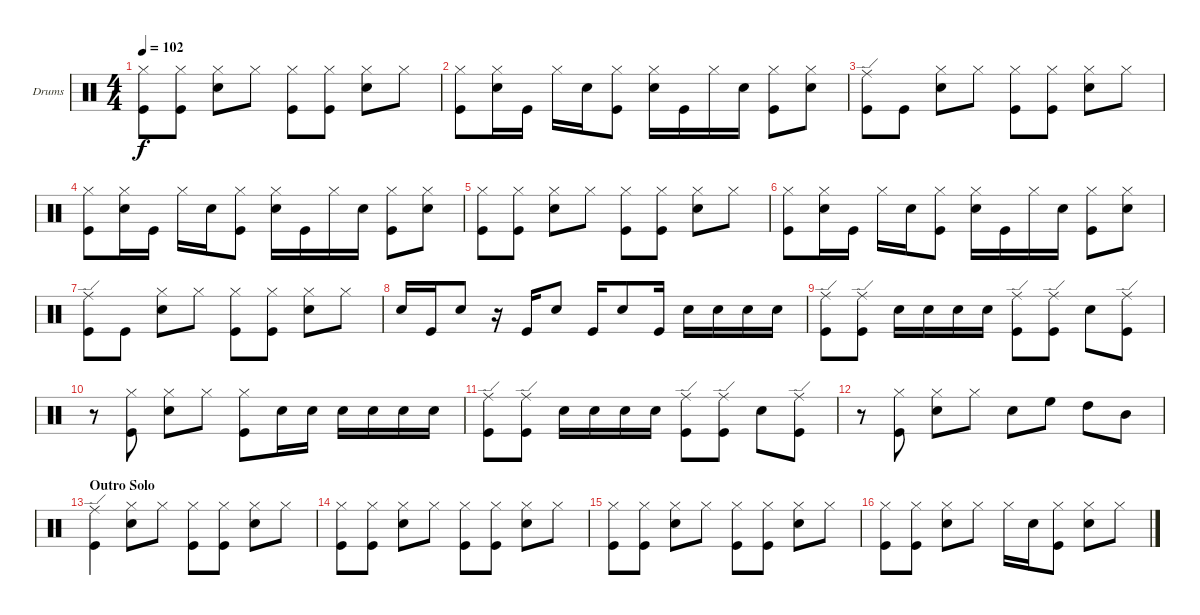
\defaultSystemsLayout 4
\bracketExtendMode groupsimilarinstruments
\firstSystemTrackNameOrientation horizontal
\otherSystemsTrackNameOrientation horizontal
\track ("Drumkit (Bonham)" "Drums") {instrument percussion}
\staff {score}
\articulation defaults
\ts (4 4)
\tempo 102
\clef neutral
\scale
0.333333
\ks c
("Hi-Hat (closed)" "Kick (hit)").8{dy f} ("Hi-Hat (closed)" "Kick (hit)").8 ("Hi-Hat (closed)" "Snare (hit) 2").8 "Hi-Hat (closed)".8 ("Hi-Hat (closed)" "Kick (hit)").8 ("Hi-Hat (closed)" "Kick (hit)").8 ("Hi-Hat (closed)" "Snare (hit) 2").8 "Hi-Hat (closed)".8 |
\scale
0.333333 ("Hi-Hat (closed)" "Kick (hit)").8 ("Hi-Hat (closed)" "Snare (hit) 2").16 "Kick (hit)".16 "Hi-Hat (closed)".16 "Snare (hit) 2".16 ("Hi-Hat (closed)" "Kick (hit)").8 ("Hi-Hat (closed)" "Snare (hit) 2").16 "Kick (hit)".16 "Hi-Hat (closed)".16 "Snare (hit) 2".16 ("Hi-Hat (closed)" "Kick (hit)").8 ("Hi-Hat (closed)" "Snare (hit) 2").8 |
\scale
0.333333 ("Ride (edge)" "Kick (hit)").8 "Kick (hit)".8 ("Hi-Hat (closed)" "Snare (hit) 2").8 "Hi-Hat (closed)".8 ("Hi-Hat (closed)" "Kick (hit)").8 ("Hi-Hat (closed)" "Kick (hit)").8 ("Hi-Hat (closed)" "Snare (hit) 2").8 "Hi-Hat (closed)".8 |
\scale
0.333333 ("Hi-Hat (closed)" "Kick (hit)").8 ("Hi-Hat (closed)" "Snare (hit) 2").16 "Kick (hit)".16 "Hi-Hat (closed)".16 "Snare (hit) 2".16 ("Hi-Hat (closed)" "Kick (hit)").8 ("Hi-Hat (closed)" "Snare (hit) 2").16 "Kick (hit)".16 "Hi-Hat (closed)".16 "Snare (hit) 2".16 ("Hi-Hat (closed)" "Kick (hit)").8 ("Hi-Hat (closed)" "Snare (hit) 2").8 |
\scale
0.333333 ("Hi-Hat (closed)" "Kick (hit)").8 ("Hi-Hat (closed)" "Kick (hit)").8 ("Hi-Hat (closed)" "Snare (hit) 2").8 "Hi-Hat (closed)".8 ("Hi-Hat (closed)" "Kick (hit)").8 ("Hi-Hat (closed)" "Kick (hit)").8 ("Hi-Hat (closed)" "Snare (hit) 2").8 "Hi-Hat (closed)".8 |
\scale
0.333333 ("Hi-Hat (closed)" "Kick (hit)").8 ("Hi-Hat (closed)" "Snare (hit) 2").16 "Kick (hit)".16 "Hi-Hat (closed)".16 "Snare (hit) 2".16 ("Hi-Hat (closed)" "Kick (hit)").8 ("Hi-Hat (closed)" "Snare (hit) 2").16 "Kick (hit)".16 "Hi-Hat (closed)".16 "Snare (hit) 2".16 ("Hi-Hat (closed)" "Kick (hit)").8 ("Hi-Hat (closed)" "Snare (hit) 2").8 |
\scale
0.333333 ("Ride (edge)" "Kick (hit)").8 "Kick (hit)".8 ("Hi-Hat (closed)" "Snare (hit) 2").8 "Hi-Hat (closed)".8 ("Hi-Hat (closed)" "Kick (hit)").8 ("Hi-Hat (closed)" "Kick (hit)").8 ("Hi-Hat (closed)" "Snare (hit) 2").8 "Hi-Hat (closed)".8 |
\scale
0.333333 "Snare (hit) 2".16 "Kick (hit)".16 "Snare (hit) 2".8 r.16 "Kick (hit)".16 "Snare (hit) 2".8 "Kick (hit)".16 "Snare (hit) 2".8 "Kick (hit)".16 "Snare (hit) 2".16 "Snare (hit) 2".16 "Snare (hit) 2".16 "Snare (hit) 2".16 |
\scale
0.333333 ("Ride (edge)" "Kick (hit)").8 ("Ride (edge)" "Kick (hit)").8 "Snare (hit) 2".16 "Snare (hit) 2".16 "Snare (hit) 2".16 "Snare (hit) 2".16 ("Ride (edge)" "Kick (hit)").8 ("Ride (edge)" "Kick (hit)").8 "Snare (hit) 2".8 ("Ride (edge)" "Kick (hit)").8 |
\scale
0.333333 r.8 ("Hi-Hat (closed)" "Kick (hit)").8 ("Hi-Hat (closed)" "Snare (hit) 2").8 "Hi-Hat (closed)".8 ("Hi-Hat (closed)" "Kick (hit)").8 "Snare (hit) 2".16 "Snare (hit) 2".16 "Snare (hit) 2".16 "Snare (hit) 2".16 "Snare (hit) 2".16 "Snare (hit) 2".16 |
\scale
0.333333 ("Ride (edge)" "Kick (hit)").8 ("Ride (edge)" "Kick (hit)").8 "Snare (hit) 2".16 "Snare (hit) 2".16 "Snare (hit) 2".16 "Snare (hit) 2".16 ("Ride (edge)" "Kick (hit)").8 ("Ride (edge)" "Kick (hit)").8 "Snare (hit) 2".8 ("Ride (edge)" "Kick (hit)").8 |
\scale
0.333333 r.8 ("Hi-Hat (closed)" "Kick (hit)").8 ("Hi-Hat (closed)" "Snare (hit) 2").8 "Hi-Hat (closed)".8 "Snare (hit) 2".8 "High Floor Tom (hit)".8 "High Tom (hit)".8 "Mid Tom (hit)".8 |
\section ("" "Outro Solo")
\scale
0.333333 ("Ride (edge)" "Kick (hit)").4 ("Hi-Hat (closed)" "Snare (hit) 2").8 "Hi-Hat (closed)".8 ("Hi-Hat (closed)" "Kick (hit)").8 ("Hi-Hat (closed)" "Kick (hit)").8 ("Hi-Hat (closed)" "Snare (hit) 2").8 "Hi-Hat (closed)".8 |
\scale
0.333333 ("Hi-Hat (closed)" "Kick (hit)").8 ("Hi-Hat (closed)" "Kick (hit)").8 ("Hi-Hat (closed)" "Snare (hit) 2").8 "Hi-Hat (closed)".8 ("Hi-Hat (closed)" "Kick (hit)").8 ("Hi-Hat (closed)" "Kick (hit)").8 ("Hi-Hat (closed)" "Snare (hit) 2").8 "Hi-Hat (closed)".8 |
\scale
0.333333 ("Hi-Hat (closed)" "Kick (hit)").8 ("Hi-Hat (closed)" "Kick (hit)").8 ("Hi-Hat (closed)" "Snare (hit) 2").8 "Hi-Hat (closed)".8 ("Hi-Hat (closed)" "Kick (hit)").8 ("Hi-Hat (closed)" "Kick (hit)").8 ("Hi-Hat (closed)" "Snare (hit) 2").8 "Hi-Hat (closed)".8 |
\scale
0.333333 ("Hi-Hat (closed)" "Kick (hit)").8 ("Hi-Hat (closed)" "Kick (hit)").8 ("Hi-Hat (closed)" "Snare (hit) 2").8 "Hi-Hat (closed)".8 "Hi-Hat (closed)".16 "Snare (hit) 2".16 ("Hi-Hat (closed)" "Kick (hit)").8 ("Hi-Hat (closed)" "Snare (hit) 2").8 "Hi-Hat (closed)".8
